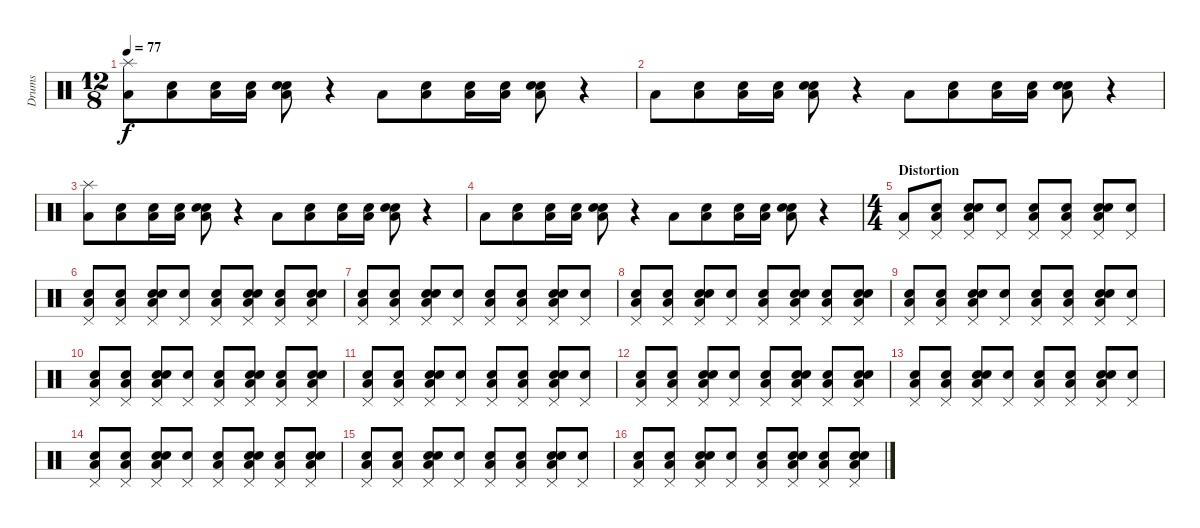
\track ("Drums" "Drums") {instrument percussion}
\staff {score}
\articulation defaults
\ts (12 8)
\tempo 77
\clef neutral
\ks c
("Low Floor Tom (hit)" "Splash (hit)").8{dy f} ("Snare (hit)" "Low Floor Tom (hit)").8 ("Snare (hit)" "Low Floor Tom (hit)").16 ("Snare (hit)" "Low Floor Tom (hit)").16 ("Snare (hit)" "Electric Snare (hit)" "Low Floor Tom (hit)").8 r.4 "Low Floor Tom (hit)".8 ("Snare (hit)" "Low Floor Tom (hit)").8 ("Snare (hit)" "Low Floor Tom (hit)").16 ("Snare (hit)" "Low Floor Tom (hit)").16 ("Snare (hit)" "Electric Snare (hit)" "Low Floor Tom (hit)").8 r.4 |
"Low Floor Tom (hit)".8 ("Snare (hit)" "Low Floor Tom (hit)").8 ("Snare (hit)" "Low Floor Tom (hit)").16 ("Snare (hit)" "Low Floor Tom (hit)").16 ("Snare (hit)" "Electric Snare (hit)" "Low Floor Tom (hit)").8 r.4 "Low Floor Tom (hit)".8 ("Snare (hit)" "Low Floor Tom (hit)").8 ("Snare (hit)" "Low Floor Tom (hit)").16 ("Snare (hit)" "Low Floor Tom (hit)").16 ("Snare (hit)" "Electric Snare (hit)" "Low Floor Tom (hit)").8 r.4 |
("Low Floor Tom (hit)" "Splash (hit)").8 ("Snare (hit)" "Low Floor Tom (hit)").8 ("Snare (hit)" "Low Floor Tom (hit)").16 ("Snare (hit)" "Low Floor Tom (hit)").16 ("Snare (hit)" "Electric Snare (hit)" "Low Floor Tom (hit)").8 r.4 "Low Floor Tom (hit)".8 ("Snare (hit)" "Low Floor Tom (hit)").8 ("Snare (hit)" "Low Floor Tom (hit)").16 ("Snare (hit)" "Low Floor Tom (hit)").16 ("Snare (hit)" "Electric Snare (hit)" "Low Floor Tom (hit)").8 r.4 |
"Low Floor Tom (hit)".8 ("Snare (hit)" "Low Floor Tom (hit)").8 ("Snare (hit)" "Low Floor Tom (hit)").16 ("Snare (hit)" "Low Floor Tom (hit)").16 ("Snare (hit)" "Electric Snare (hit)" "Low Floor Tom (hit)").8 r.4 "Low Floor Tom (hit)".8 ("Snare (hit)" "Low Floor Tom (hit)").8 ("Snare (hit)" "Low Floor Tom (hit)").16 ("Snare (hit)" "Low Floor Tom (hit)").16 ("Snare (hit)" "Electric Snare (hit)" "Low Floor Tom (hit)").8 r.4 |
\ts (4 4)
\section ("" "Distortion")
("Low Floor Tom (hit)" "Pedal Hi-Hat (hit)").8 ("Snare (hit)" "Low Floor Tom (hit)" "Pedal Hi-Hat (hit)").8 ("Snare (hit)" "Electric Snare (hit)" "Low Floor Tom (hit)" "Pedal Hi-Hat (hit)").8 ("Snare (hit)" "Pedal Hi-Hat (hit)").8 ("Snare (hit)" "Low Floor Tom (hit)" "Pedal Hi-Hat (hit)").8 ("Snare (hit)" "Low Floor Tom (hit)" "Pedal Hi-Hat (hit)").8 ("Snare (hit)" "Electric Snare (hit)" "Low Floor Tom (hit)" "Pedal Hi-Hat (hit)").8 ("Snare (hit)" "Pedal Hi-Hat (hit)").8 |
("Snare (hit)" "Low Floor Tom (hit)" "Pedal Hi-Hat (hit)").8 ("Snare (hit)" "Low Floor Tom (hit)" "Pedal Hi-Hat (hit)").8 ("Snare (hit)" "Electric Snare (hit)" "Low Floor Tom (hit)" "Pedal Hi-Hat (hit)").8 ("Snare (hit)" "Pedal Hi-Hat (hit)").8 ("Snare (hit)" "Low Floor Tom (hit)" "Pedal Hi-Hat (hit)").8 ("Snare (hit)" "Electric Snare (hit)" "Low Floor Tom (hit)" "Pedal Hi-Hat (hit)").8 ("Snare (hit)" "Low Floor Tom (hit)" "Pedal Hi-Hat (hit)").8 ("Snare (hit)" "Electric Snare (hit)" "Low Floor Tom (hit)" "Pedal Hi-Hat (hit)").8 |
("Snare (hit)" "Low Floor Tom (hit)" "Pedal Hi-Hat (hit)").8 ("Snare (hit)" "Low Floor Tom (hit)" "Pedal Hi-Hat (hit)").8 ("Snare (hit)" "Electric Snare (hit)" "Low Floor Tom (hit)" "Pedal Hi-Hat (hit)").8 ("Snare (hit)" "Pedal Hi-Hat (hit)").8 ("Snare (hit)" "Low Floor Tom (hit)" "Pedal Hi-Hat (hit)").8 ("Snare (hit)" "Low Floor Tom (hit)" "Pedal Hi-Hat (hit)").8 ("Snare (hit)" "Electric Snare (hit)" "Low Floor Tom (hit)" "Pedal Hi-Hat (hit)").8 ("Snare (hit)" "Pedal Hi-Hat (hit)").8 |
("Snare (hit)" "Low Floor Tom (hit)" "Pedal Hi-Hat (hit)").8 ("Snare (hit)" "Low Floor Tom (hit)" "Pedal Hi-Hat (hit)").8 ("Snare (hit)" "Electric Snare (hit)" "Low Floor Tom (hit)" "Pedal Hi-Hat (hit)").8 ("Snare (hit)" "Pedal Hi-Hat (hit)").8 ("Snare (hit)" "Low Floor Tom (hit)" "Pedal Hi-Hat (hit)").8 ("Snare (hit)" "Electric Snare (hit)" "Low Floor Tom (hit)" "Pedal Hi-Hat (hit)").8 ("Snare (hit)" "Low Floor Tom (hit)" "Pedal Hi-Hat (hit)").8 ("Snare (hit)" "Electric Snare (hit)" "Low Floor Tom (hit)" "Pedal Hi-Hat (hit)").8 |
("Snare (hit)" "Low Floor Tom (hit)" "Pedal Hi-Hat (hit)").8 ("Snare (hit)" "Low Floor Tom (hit)" "Pedal Hi-Hat (hit)").8 ("Snare (hit)" "Electric Snare (hit)" "Low Floor Tom (hit)" "Pedal Hi-Hat (hit)").8 ("Snare (hit)" "Pedal Hi-Hat (hit)").8 ("Snare (hit)" "Low Floor Tom (hit)" "Pedal Hi-Hat (hit)").8 ("Snare (hit)" "Low Floor Tom (hit)" "Pedal Hi-Hat (hit)").8 ("Snare (hit)" "Electric Snare (hit)" "Low Floor Tom (hit)" "Pedal Hi-Hat (hit)").8 ("Snare (hit)" "Pedal Hi-Hat (hit)").8 |
("Snare (hit)" "Low Floor Tom (hit)" "Pedal Hi-Hat (hit)").8 ("Snare (hit)" "Low Floor Tom (hit)" "Pedal Hi-Hat (hit)").8 ("Snare (hit)" "Electric Snare (hit)" "Low Floor Tom (hit)" "Pedal Hi-Hat (hit)").8 ("Snare (hit)" "Pedal Hi-Hat (hit)").8 ("Snare (hit)" "Low Floor Tom (hit)" "Pedal Hi-Hat (hit)").8 ("Snare (hit)" "Electric Snare (hit)" "Low Floor Tom (hit)" "Pedal Hi-Hat (hit)").8 ("Snare (hit)" "Low Floor Tom (hit)" "Pedal Hi-Hat (hit)").8 ("Snare (hit)" "Electric Snare (hit)" "Low Floor Tom (hit)" "Pedal Hi-Hat (hit)").8 |
("Snare (hit)" "Low Floor Tom (hit)" "Pedal Hi-Hat (hit)").8 ("Snare (hit)" "Low Floor Tom (hit)" "Pedal Hi-Hat (hit)").8 ("Snare (hit)" "Electric Snare (hit)" "Low Floor Tom (hit)" "Pedal Hi-Hat (hit)").8 ("Snare (hit)" "Pedal Hi-Hat (hit)").8 ("Snare (hit)" "Low Floor Tom (hit)" "Pedal Hi-Hat (hit)").8 ("Snare (hit)" "Low Floor Tom (hit)" "Pedal Hi-Hat (hit)").8 ("Snare (hit)" "Electric Snare (hit)" "Low Floor Tom (hit)" "Pedal Hi-Hat (hit)").8 ("Snare (hit)" "Pedal Hi-Hat (hit)").8 |
("Snare (hit)" "Low Floor Tom (hit)" "Pedal Hi-Hat (hit)").8 ("Snare (hit)" "Low Floor Tom (hit)" "Pedal Hi-Hat (hit)").8 ("Snare (hit)" "Electric Snare (hit)" "Low Floor Tom (hit)" "Pedal Hi-Hat (hit)").8 ("Snare (hit)" "Pedal Hi-Hat (hit)").8 ("Snare (hit)" "Low Floor Tom (hit)" "Pedal Hi-Hat (hit)").8 ("Snare (hit)" "Electric Snare (hit)" "Low Floor Tom (hit)" "Pedal Hi-Hat (hit)").8 ("Snare (hit)" "Low Floor Tom (hit)" "Pedal Hi-Hat (hit)").8 ("Snare (hit)" "Electric Snare (hit)" "Low Floor Tom (hit)" "Pedal Hi-Hat (hit)").8 |
("Snare (hit)" "Low Floor Tom (hit)" "Pedal Hi-Hat (hit)").8 ("Snare (hit)" "Low Floor Tom (hit)" "Pedal Hi-Hat (hit)").8 ("Snare (hit)" "Electric Snare (hit)" "Low Floor Tom (hit)" "Pedal Hi-Hat (hit)").8 ("Snare (hit)" "Pedal Hi-Hat (hit)").8 ("Snare (hit)" "Low Floor Tom (hit)" "Pedal Hi-Hat (hit)").8 ("Snare (hit)" "Low Floor Tom (hit)" "Pedal Hi-Hat (hit)").8 ("Snare (hit)" "Electric Snare (hit)" "Low Floor Tom (hit)" "Pedal Hi-Hat (hit)").8 ("Snare (hit)" "Pedal Hi-Hat (hit)").8 |
("Snare (hit)" "Low Floor Tom (hit)" "Pedal Hi-Hat (hit)").8 ("Snare (hit)" "Low Floor Tom (hit)" "Pedal Hi-Hat (hit)").8 ("Snare (hit)" "Electric Snare (hit)" "Low Floor Tom (hit)" "Pedal Hi-Hat (hit)").8 ("Snare (hit)" "Pedal Hi-Hat (hit)").8 ("Snare (hit)" "Low Floor Tom (hit)" "Pedal Hi-Hat (hit)").8 ("Snare (hit)" "Electric Snare (hit)" "Low Floor Tom (hit)" "Pedal Hi-Hat (hit)").8 ("Snare (hit)" "Low Floor Tom (hit)" "Pedal Hi-Hat (hit)").8 ("Snare (hit)" "Electric Snare (hit)" "Low Floor Tom (hit)" "Pedal Hi-Hat (hit)").8 |
("Snare (hit)" "Low Floor Tom (hit)" "Pedal Hi-Hat (hit)").8 ("Snare (hit)" "Low Floor Tom (hit)" "Pedal Hi-Hat (hit)").8 ("Snare (hit)" "Electric Snare (hit)" "Low Floor Tom (hit)" "Pedal Hi-Hat (hit)").8 ("Snare (hit)" "Pedal Hi-Hat (hit)").8 ("Snare (hit)" "Low Floor Tom (hit)" "Pedal Hi-Hat (hit)").8 ("Snare (hit)" "Low Floor Tom (hit)" "Pedal Hi-Hat (hit)").8 ("Snare (hit)" "Electric Snare (hit)" "Low Floor Tom (hit)" "Pedal Hi-Hat (hit)").8 ("Snare (hit)" "Pedal Hi-Hat (hit)").8 |
("Snare (hit)" "Low Floor Tom (hit)" "Pedal Hi-Hat (hit)").8 ("Snare (hit)" "Low Floor Tom (hit)" "Pedal Hi-Hat (hit)").8 ("Snare (hit)" "Electric Snare (hit)" "Low Floor Tom (hit)" "Pedal Hi-Hat (hit)").8 ("Snare (hit)" "Pedal Hi-Hat (hit)").8 ("Snare (hit)" "Low Floor Tom (hit)" "Pedal Hi-Hat (hit)").8 ("Snare (hit)" "Electric Snare (hit)" "Low Floor Tom (hit)" "Pedal Hi-Hat (hit)").8 ("Snare (hit)" "Low Floor Tom (hit)" "Pedal Hi-Hat (hit)").8 ("Snare (hit)" "Electric Snare (hit)" "Low Floor Tom (hit)" "Pedal Hi-Hat (hit)").8
